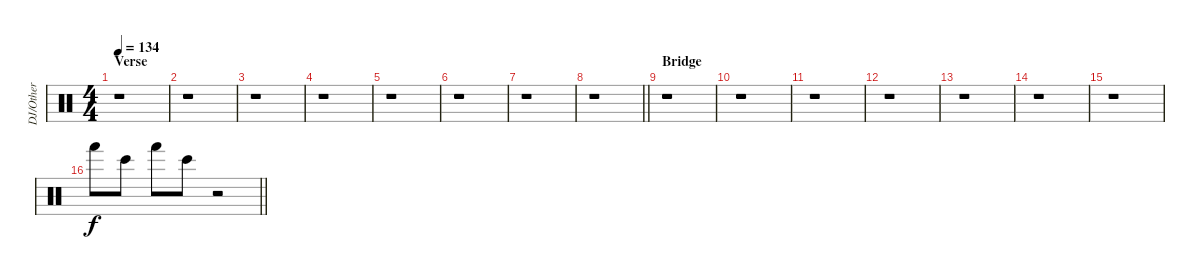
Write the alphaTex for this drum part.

\track ("DJ/Other" "DJ/Other") {instrument percussion}
\staff {score}
\articulation defaults
\ts (4 4)
\section ("" "Verse")
\tempo 134
\clef neutral
\ks c
r.1{dy mp} |
r.1{volume 13} |
r.1 |
r.1 |
r.1 |
r.1 |
r.1 |
\barLineRight lightlight
r.1 |
\section ("" "Bridge")
r.1 |
r.1 |
r.1 |
r.1 |
r.1 |
r.1 |
r.1 |
\barLineRight lightlight "Hand (hit)".8{dy f} "Bongo High (hit)".8 "Hand (hit)".8 "Bongo High (hit)".8
r.2
